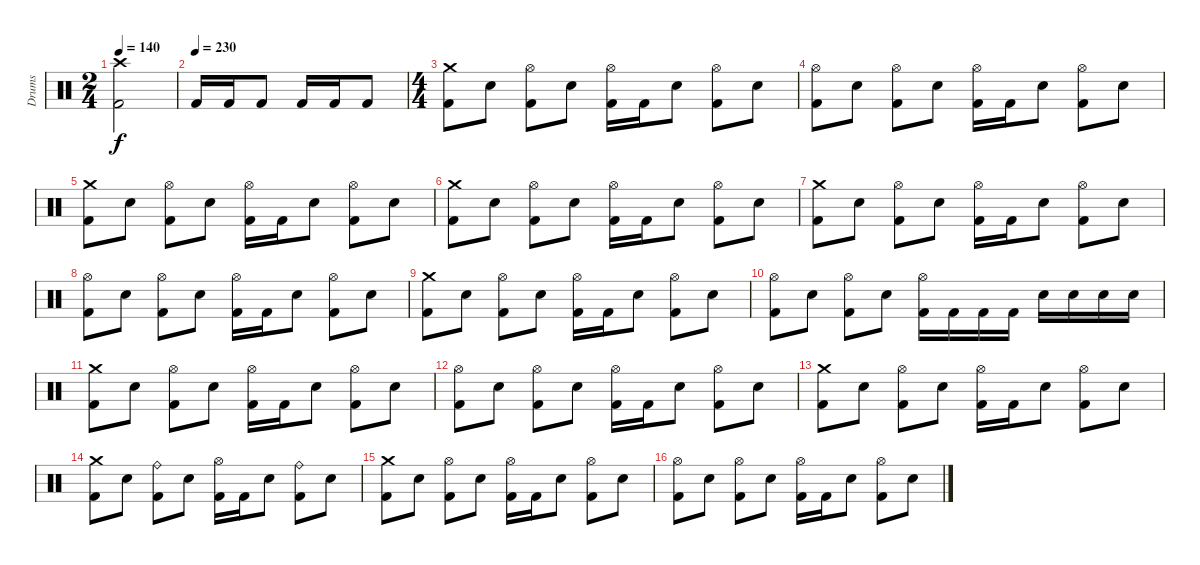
\track ("Drums" "Drums") {instrument percussion}
\staff {score}
\articulation defaults
\ts (2 4)
\tempo 140
\clef neutral
\ks c
("Crash high (hit)" "Kick (hit) 2").2{dy f} |
\tempo (230)
"Kick (hit) 2".16 "Kick (hit) 2".16 "Kick (hit) 2".8 "Kick (hit) 2".16 "Kick (hit) 2".16 "Kick (hit) 2".8 |
\ts (4 4)
("Crash medium (hit)" "Kick (hit) 2").8 "Electric Snare (hit)".8 ("Hi-Hat (open)" "Kick (hit) 2").8 "Electric Snare (hit)".8 ("Hi-Hat (open)" "Kick (hit) 2").16 "Kick (hit) 2".16 "Electric Snare (hit)".8 ("Hi-Hat (open)" "Kick (hit) 2").8 "Electric Snare (hit)".8 |
("Hi-Hat (open)" "Kick (hit) 2").8 "Electric Snare (hit)".8 ("Hi-Hat (open)" "Kick (hit) 2").8 "Electric Snare (hit)".8 ("Hi-Hat (open)" "Kick (hit) 2").16 "Kick (hit) 2".16 "Electric Snare (hit)".8 ("Hi-Hat (open)" "Kick (hit) 2").8 "Electric Snare (hit)".8 |
("Crash medium (hit)" "Kick (hit) 2").8 "Electric Snare (hit)".8 ("Hi-Hat (open)" "Kick (hit) 2").8 "Electric Snare (hit)".8 ("Hi-Hat (open)" "Kick (hit) 2").16 "Kick (hit) 2".16 "Electric Snare (hit)".8 ("Hi-Hat (open)" "Kick (hit) 2").8 "Electric Snare (hit)".8 |
("Crash medium (hit)" "Kick (hit) 2").8 "Electric Snare (hit)".8 ("Hi-Hat (open)" "Kick (hit) 2").8 "Electric Snare (hit)".8 ("Hi-Hat (open)" "Kick (hit) 2").16 "Kick (hit) 2".16 "Electric Snare (hit)".8 ("Hi-Hat (open)" "Kick (hit) 2").8 "Electric Snare (hit)".8 |
("Crash medium (hit)" "Kick (hit) 2").8 "Electric Snare (hit)".8 ("Hi-Hat (open)" "Kick (hit) 2").8 "Electric Snare (hit)".8 ("Hi-Hat (open)" "Kick (hit) 2").16 "Kick (hit) 2".16 "Electric Snare (hit)".8 ("Hi-Hat (open)" "Kick (hit) 2").8 "Electric Snare (hit)".8 |
("Hi-Hat (open)" "Kick (hit) 2").8 "Electric Snare (hit)".8 ("Hi-Hat (open)" "Kick (hit) 2").8 "Electric Snare (hit)".8 ("Hi-Hat (open)" "Kick (hit) 2").16 "Kick (hit) 2".16 "Electric Snare (hit)".8 ("Hi-Hat (open)" "Kick (hit) 2").8 "Electric Snare (hit)".8 |
("Crash medium (hit)" "Kick (hit) 2").8 "Electric Snare (hit)".8 ("Hi-Hat (open)" "Kick (hit) 2").8 "Electric Snare (hit)".8 ("Hi-Hat (open)" "Kick (hit) 2").16 "Kick (hit) 2".16 "Electric Snare (hit)".8 ("Hi-Hat (open)" "Kick (hit) 2").8 "Electric Snare (hit)".8 |
("Hi-Hat (open)" "Kick (hit) 2").8 "Electric Snare (hit)".8 ("Hi-Hat (open)" "Kick (hit) 2").8 "Electric Snare (hit)".8 ("Hi-Hat (open)" "Kick (hit) 2").16 "Kick (hit) 2".16 "Kick (hit) 2".16 "Kick (hit) 2".16 "Electric Snare (hit)".16 "Electric Snare (hit)".16 "Electric Snare (hit)".16 "Electric Snare (hit)".16 |
("Crash medium (hit)" "Kick (hit) 2").8 "Electric Snare (hit)".8 ("Hi-Hat (open)" "Kick (hit) 2").8 "Electric Snare (hit)".8 ("Hi-Hat (open)" "Kick (hit) 2").16 "Kick (hit) 2".16 "Electric Snare (hit)".8 ("Hi-Hat (open)" "Kick (hit) 2").8 "Electric Snare (hit)".8 |
("Hi-Hat (open)" "Kick (hit) 2").8 "Electric Snare (hit)".8 ("Hi-Hat (open)" "Kick (hit) 2").8 "Electric Snare (hit)".8 ("Hi-Hat (open)" "Kick (hit) 2").16 "Kick (hit) 2".16 "Electric Snare (hit)".8 ("Hi-Hat (open)" "Kick (hit) 2").8 "Electric Snare (hit)".8 |
("Crash medium (hit)" "Kick (hit) 2").8 "Electric Snare (hit)".8 ("Hi-Hat (open)" "Kick (hit) 2").8 "Electric Snare (hit)".8 ("Hi-Hat (open)" "Kick (hit) 2").16 "Kick (hit) 2".16 "Electric Snare (hit)".8 ("Hi-Hat (open)" "Kick (hit) 2").8 "Electric Snare (hit)".8 |
("Crash medium (hit)" "Kick (hit) 2").8 "Electric Snare (hit)".8 ("Ride (bell)" "Kick (hit) 2").8 "Electric Snare (hit)".8 ("Hi-Hat (open)" "Kick (hit) 2").16 "Kick (hit) 2".16 "Electric Snare (hit)".8 ("Ride (bell)" "Kick (hit) 2").8 "Electric Snare (hit)".8 |
("Crash medium (hit)" "Kick (hit) 2").8 "Electric Snare (hit)".8 ("Hi-Hat (open)" "Kick (hit) 2").8 "Electric Snare (hit)".8 ("Hi-Hat (open)" "Kick (hit) 2").16 "Kick (hit) 2".16 "Electric Snare (hit)".8 ("Hi-Hat (open)" "Kick (hit) 2").8 "Electric Snare (hit)".8 |
("Hi-Hat (open)" "Kick (hit) 2").8 "Electric Snare (hit)".8 ("Hi-Hat (open)" "Kick (hit) 2").8 "Electric Snare (hit)".8 ("Hi-Hat (open)" "Kick (hit) 2").16 "Kick (hit) 2".16 "Electric Snare (hit)".8 ("Hi-Hat (open)" "Kick (hit) 2").8 "Electric Snare (hit)".8
